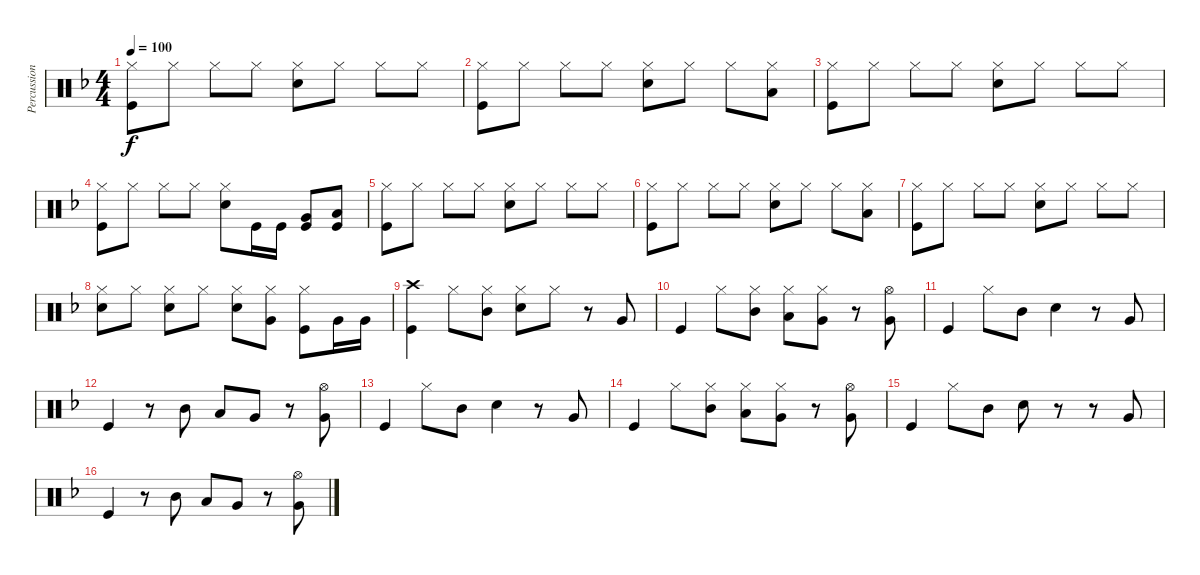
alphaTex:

\track ("Percussion" "Percussion") {instrument percussion}
\staff {score}
\articulation defaults
\ts (4 4)
\tempo 100
\clef neutral
\ks dminor
("Hi-Hat (closed)" "Kick (hit)").8{dy f} "Hi-Hat (closed)".8 "Hi-Hat (closed)".8 "Hi-Hat (closed)".8 ("Hi-Hat (closed)" "Snare (hit) 2").8 "Hi-Hat (closed)".8 "Hi-Hat (closed)".8 "Hi-Hat (closed)".8 |
("Hi-Hat (closed)" "Kick (hit)").8 "Hi-Hat (closed)".8 "Hi-Hat (closed)".8 "Hi-Hat (closed)".8 ("Hi-Hat (closed)" "Snare (hit) 2").8 "Hi-Hat (closed)".8 "Hi-Hat (closed)".8 ("Hi-Hat (closed)" "Low Tom (hit)").8 |
("Hi-Hat (closed)" "Kick (hit)").8 "Hi-Hat (closed)".8 "Hi-Hat (closed)".8 "Hi-Hat (closed)".8 ("Hi-Hat (closed)" "Snare (hit) 2").8 "Hi-Hat (closed)".8 "Hi-Hat (closed)".8 "Hi-Hat (closed)".8 |
("Hi-Hat (closed)" "Kick (hit)").8 "Hi-Hat (closed)".8 "Hi-Hat (closed)".8 "Hi-Hat (closed)".8 ("Hi-Hat (closed)" "Snare (hit) 2").8 "Kick (hit)".16 "Kick (hit)".16 ("Very Low Tom (hit)" "Kick (hit)").8 ("Low Tom (hit)" "Kick (hit)").8 |
("Hi-Hat (closed)" "Kick (hit)").8 "Hi-Hat (closed)".8 "Hi-Hat (closed)".8 "Hi-Hat (closed)".8 ("Hi-Hat (closed)" "Snare (hit) 2").8 "Hi-Hat (closed)".8 "Hi-Hat (closed)".8 "Hi-Hat (closed)".8 |
("Hi-Hat (closed)" "Kick (hit)").8 "Hi-Hat (closed)".8 "Hi-Hat (closed)".8 "Hi-Hat (closed)".8 ("Hi-Hat (closed)" "Snare (hit) 2").8 "Hi-Hat (closed)".8 "Hi-Hat (closed)".8 ("Hi-Hat (closed)" "Low Tom (hit)").8 |
("Hi-Hat (closed)" "Kick (hit)").8 "Hi-Hat (closed)".8 "Hi-Hat (closed)".8 "Hi-Hat (closed)".8 ("Hi-Hat (closed)" "Snare (hit) 2").8 "Hi-Hat (closed)".8 "Hi-Hat (closed)".8 "Hi-Hat (closed)".8 |
("Hi-Hat (closed)" "Snare (hit) 2").8 "Hi-Hat (closed)".8 ("Hi-Hat (closed)" "Snare (hit) 2").8 "Hi-Hat (closed)".8 ("Hi-Hat (closed)" "Snare (hit) 2").8 ("Hi-Hat (closed)" "Very Low Tom (hit)").8 ("Hi-Hat (closed)" "Kick (hit)").8 "Very Low Tom (hit)".16 "Very Low Tom (hit)".16 |
("Crash high (hit)" "Kick (hit)").4 "Hi-Hat (closed)".8 ("Hi-Hat (closed)" "Mid Tom (hit)").8 ("Hi-Hat (closed)" "Snare (hit) 2").8 "Hi-Hat (closed)".8 r.8 "Very Low Tom (hit)".8 |
"Kick (hit)".4 "Hi-Hat (closed)".8 ("Hi-Hat (closed)" "Mid Tom (hit)").8 ("Hi-Hat (closed)" "Low Tom (hit)").8 ("Hi-Hat (closed)" "Very Low Tom (hit)").8 r.8 ("Hi-Hat (open)" "Very Low Tom (hit)").8 |
"Kick (hit)".4 "Hi-Hat (closed)".8 "Mid Tom (hit)".8 "Snare (hit) 2".4 r.8 "Very Low Tom (hit)".8 |
"Kick (hit)".4 r.8 "Mid Tom (hit)".8 "Low Tom (hit)".8 "Very Low Tom (hit)".8 r.8 ("Hi-Hat (open)" "Very Low Tom (hit)").8 |
"Kick (hit)".4 "Hi-Hat (closed)".8 "Mid Tom (hit)".8 "Snare (hit) 2".4 r.8 "Very Low Tom (hit)".8 |
"Kick (hit)".4 "Hi-Hat (closed)".8 ("Hi-Hat (closed)" "Mid Tom (hit)").8 ("Hi-Hat (closed)" "Low Tom (hit)").8 ("Hi-Hat (closed)" "Very Low Tom (hit)").8 r.8 ("Hi-Hat (open)" "Very Low Tom (hit)").8 |
"Kick (hit)".4 "Hi-Hat (closed)".8 "Mid Tom (hit)".8 "Snare (hit) 2".8 r.8 r.8 "Very Low Tom (hit)".8 |
"Kick (hit)".4 r.8 "Mid Tom (hit)".8 "Low Tom (hit)".8 "Very Low Tom (hit)".8 r.8 ("Hi-Hat (open)" "Very Low Tom (hit)").8
